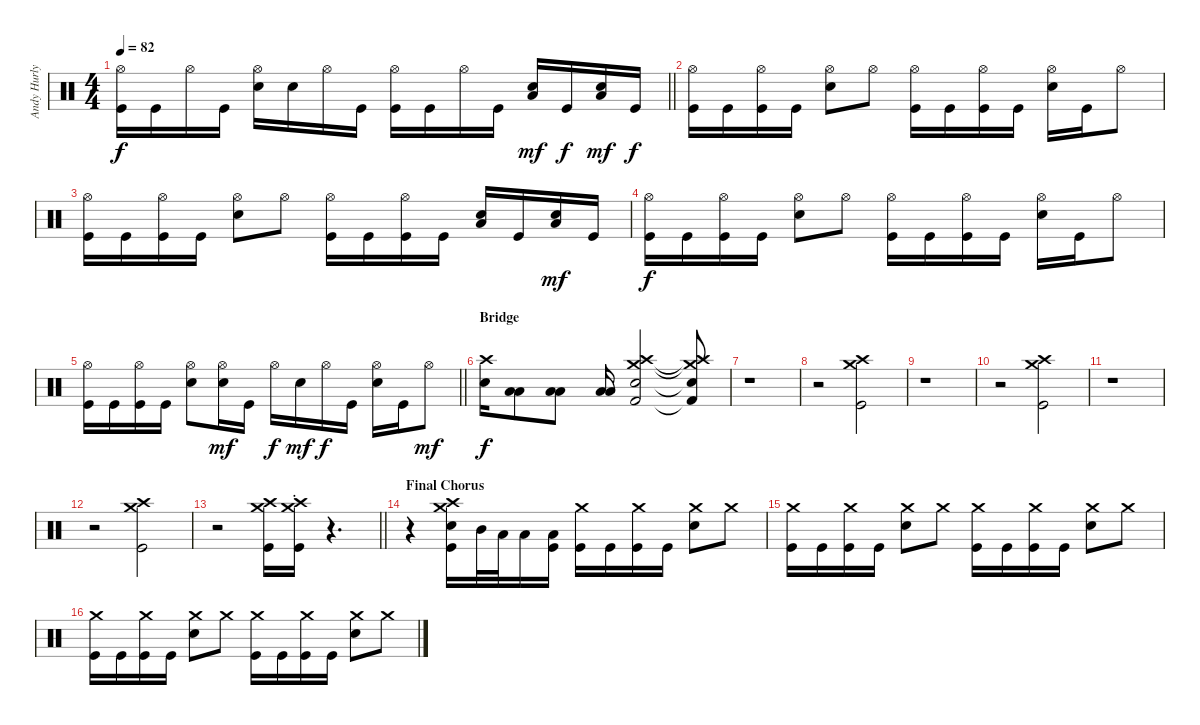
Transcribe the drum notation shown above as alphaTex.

\track ("Andy Hurly (Drums)" "Andy Hurly") {instrument percussion}
\staff {score}
\articulation defaults
\ts (4 4)
\tempo 82
\clef neutral
\barLineRight lightlight
\ks c
("Hi-Hat (open)" "Kick (hit)").16{dy f} "Kick (hit)".16 "Hi-Hat (open)".16 "Kick (hit)".16 ("Hi-Hat (open)" "Electric Snare (hit)").16 "Electric Snare (hit)".16 "Hi-Hat (open)".16 "Kick (hit)".16 ("Hi-Hat (open)" "Kick (hit)").16 "Kick (hit)".16 "Hi-Hat (open)".16 "Kick (hit)".16 ("Low Floor Tom (hit)" "Electric Snare (hit)").16{dy mf} "Kick (hit)".16{dy f} ("Low Floor Tom (hit)" "Electric Snare (hit)").16{dy mf} "Kick (hit)".16{dy f} |
("Hi-Hat (open)" "Kick (hit)").16 "Kick (hit)".16 ("Hi-Hat (open)" "Kick (hit)").16 "Kick (hit)".16 ("Hi-Hat (open)" "Electric Snare (hit)").8 "Hi-Hat (open)".8 ("Hi-Hat (open)" "Kick (hit)").16 "Kick (hit)".16 ("Hi-Hat (open)" "Kick (hit)").16 "Kick (hit)".16 ("Hi-Hat (open)" "Electric Snare (hit)").16 "Kick (hit)".16 "Hi-Hat (open)".8 |
("Hi-Hat (open)" "Kick (hit)").16 "Kick (hit)".16 ("Hi-Hat (open)" "Kick (hit)").16 "Kick (hit)".16 ("Hi-Hat (open)" "Electric Snare (hit)").8 "Hi-Hat (open)".8 ("Hi-Hat (open)" "Kick (hit)").16 "Kick (hit)".16 ("Hi-Hat (open)" "Kick (hit)").16 "Kick (hit)".16 ("Low Floor Tom (hit)" "Electric Snare (hit)").16 "Kick (hit)".16 ("Low Floor Tom (hit)" "Electric Snare (hit)").16{dy mf} "Kick (hit)".16 |
("Hi-Hat (open)" "Kick (hit)").16{dy f} "Kick (hit)".16 ("Hi-Hat (open)" "Kick (hit)").16 "Kick (hit)".16 ("Hi-Hat (open)" "Electric Snare (hit)").8 "Hi-Hat (open)".8 ("Hi-Hat (open)" "Kick (hit)").16 "Kick (hit)".16 ("Hi-Hat (open)" "Kick (hit)").16 "Kick (hit)".16 ("Hi-Hat (open)" "Electric Snare (hit)").16 "Kick (hit)".16 "Hi-Hat (open)".8 |
\barLineRight lightlight
("Hi-Hat (open)" "Kick (hit)").16 "Kick (hit)".16 ("Hi-Hat (open)" "Kick (hit)").16 "Kick (hit)".16 ("Hi-Hat (open)" "Electric Snare (hit)").8 ("Hi-Hat (open)" "Electric Snare (hit)").16{dy mf} "Kick (hit)".16 "Hi-Hat (open)".16{dy f} "Electric Snare (hit)".16{dy mf} "Hi-Hat (open)".16{dy f} "Kick (hit)".16 ("Hi-Hat (open)" "Electric Snare (hit)").16 "Kick (hit)".16 "Hi-Hat (open)".8{dy mf} |
\section ("" "Bridge")
("Crash high (hit)" "Electric Snare (hit)").16{dy f} ("Low Tom (hit)" "Low Floor Tom (hit)").8 ("Low Tom (hit)" "Low Floor Tom (hit)").8 ("Low Tom (hit)" "Low Floor Tom (hit)").16 ("Crash high (hit)" "Crash medium (hit)" "Electric Snare (hit)" "Kick (hit) 2").2 ("Crash high (hit)"{t} "Crash medium (hit)"{t} "Electric Snare (hit)"{t} "Kick (hit) 2"{t}).8 |
r.1 |
r.2 ("Crash high (hit)" "Crash medium (hit)" "Kick (hit)").2 |
r.1 |
r.2 ("Crash high (hit)" "Crash medium (hit)" "Kick (hit)").2 |
r.1 |
r.2 ("Crash high (hit)" "Crash medium (hit)" "Kick (hit)").2 |
\barLineRight lightlight
r.2 ("Crash high (hit)" "Crash medium (hit)" "Kick (hit)").16 ("Crash high (hit)"{st} "Crash medium (hit)"{st} "Kick (hit)"{st}).16 r.4{d} |
\section ("" "Final Chorus")
r.4 ("Crash high (hit)" "Crash medium (hit)" "Electric Snare (hit)" "Kick (hit)").16 "Mid Tom (hit)".32 "Low Tom (hit)".32 "Low Floor Tom (hit)".16 ("Low Floor Tom (hit)" "Kick (hit)").16 ("Crash medium (hit)" "Kick (hit)").16 "Kick (hit)".16 ("Crash medium (hit)" "Kick (hit)").16 "Kick (hit)".16 ("Crash medium (hit)" "Electric Snare (hit)").8 "Crash medium (hit)".8 |
("Crash medium (hit)" "Kick (hit)").16 "Kick (hit)".16 ("Crash medium (hit)" "Kick (hit)").16 "Kick (hit)".16 ("Crash medium (hit)" "Electric Snare (hit)").8 "Crash medium (hit)".8 ("Crash medium (hit)" "Kick (hit)").16 "Kick (hit)".16 ("Crash medium (hit)" "Kick (hit)").16 "Kick (hit)".16 ("Crash medium (hit)" "Electric Snare (hit)").8 "Crash medium (hit)".8 |
("Crash medium (hit)" "Kick (hit)").16 "Kick (hit)".16 ("Crash medium (hit)" "Kick (hit)").16 "Kick (hit)".16 ("Crash medium (hit)" "Electric Snare (hit)").8 "Crash medium (hit)".8 ("Crash medium (hit)" "Kick (hit)").16 "Kick (hit)".16 ("Crash medium (hit)" "Kick (hit)").16 "Kick (hit)".16 ("Crash medium (hit)" "Electric Snare (hit)").8 "Crash medium (hit)".8
